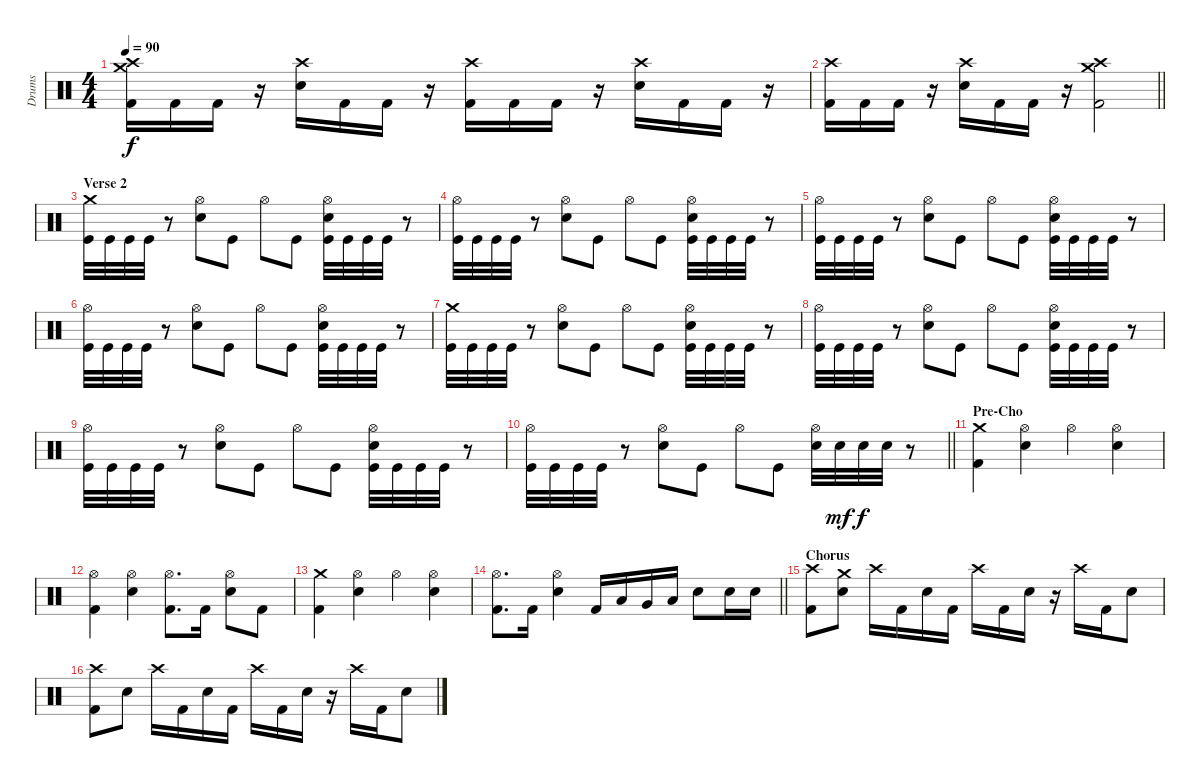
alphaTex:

\track ("Drums" "Drums") {instrument percussion}
\staff {score}
\articulation defaults
\ts (4 4)
\tempo 90
\clef neutral
\ks c
("Crash medium (hit)" "Crash high (hit)" "Kick (hit) 2").16{dy f} "Kick (hit) 2".16 "Kick (hit) 2".16 r.16 ("Crash high (hit)" "Electric Snare (hit)").16 "Kick (hit) 2".16 "Kick (hit) 2".16 r.16 ("Crash high (hit)" "Kick (hit) 2").16 "Kick (hit) 2".16 "Kick (hit) 2".16 r.16 ("Crash high (hit)" "Electric Snare (hit)").16 "Kick (hit) 2".16 "Kick (hit) 2".16 r.16 |
\barLineRight lightlight
("Crash high (hit)" "Kick (hit) 2").16 "Kick (hit) 2".16 "Kick (hit) 2".16 r.16 ("Crash high (hit)" "Electric Snare (hit)").16 "Kick (hit) 2".16 "Kick (hit) 2".16 r.16 ("Crash medium (hit)" "Crash high (hit)" "Kick (hit) 2").2 |
\section ("" "Verse 2")
("Crash medium (hit)" "Kick (hit)").32 "Kick (hit)".32 "Kick (hit)".32 "Kick (hit)".32 r.8 ("Hi-Hat (open)" "Electric Snare (hit)").8 "Kick (hit)".8 "Hi-Hat (open)".8 "Kick (hit)".8 ("Hi-Hat (open)" "Electric Snare (hit)" "Kick (hit)").32 "Kick (hit)".32 "Kick (hit)".32 "Kick (hit)".32 r.8 |
("Hi-Hat (open)" "Kick (hit)").32 "Kick (hit)".32 "Kick (hit)".32 "Kick (hit)".32 r.8 ("Hi-Hat (open)" "Electric Snare (hit)").8 "Kick (hit)".8 "Hi-Hat (open)".8 "Kick (hit)".8 ("Hi-Hat (open)" "Electric Snare (hit)" "Kick (hit)").32 "Kick (hit)".32 "Kick (hit)".32 "Kick (hit)".32 r.8 |
("Hi-Hat (open)" "Kick (hit)").32 "Kick (hit)".32 "Kick (hit)".32 "Kick (hit)".32 r.8 ("Hi-Hat (open)" "Electric Snare (hit)").8 "Kick (hit)".8 "Hi-Hat (open)".8 "Kick (hit)".8 ("Hi-Hat (open)" "Electric Snare (hit)" "Kick (hit)").32 "Kick (hit)".32 "Kick (hit)".32 "Kick (hit)".32 r.8 |
("Hi-Hat (open)" "Kick (hit)").32 "Kick (hit)".32 "Kick (hit)".32 "Kick (hit)".32 r.8 ("Hi-Hat (open)" "Electric Snare (hit)").8 "Kick (hit)".8 "Hi-Hat (open)".8 "Kick (hit)".8 ("Hi-Hat (open)" "Electric Snare (hit)" "Kick (hit)").32 "Kick (hit)".32 "Kick (hit)".32 "Kick (hit)".32 r.8 |
("Crash medium (hit)" "Kick (hit)").32 "Kick (hit)".32 "Kick (hit)".32 "Kick (hit)".32 r.8 ("Hi-Hat (open)" "Electric Snare (hit)").8 "Kick (hit)".8 "Hi-Hat (open)".8 "Kick (hit)".8 ("Hi-Hat (open)" "Electric Snare (hit)" "Kick (hit)").32 "Kick (hit)".32 "Kick (hit)".32 "Kick (hit)".32 r.8 |
("Hi-Hat (open)" "Kick (hit)").32 "Kick (hit)".32 "Kick (hit)".32 "Kick (hit)".32 r.8 ("Hi-Hat (open)" "Electric Snare (hit)").8 "Kick (hit)".8 "Hi-Hat (open)".8 "Kick (hit)".8 ("Hi-Hat (open)" "Electric Snare (hit)" "Kick (hit)").32 "Kick (hit)".32 "Kick (hit)".32 "Kick (hit)".32 r.8 |
("Hi-Hat (open)" "Kick (hit)").32 "Kick (hit)".32 "Kick (hit)".32 "Kick (hit)".32 r.8 ("Hi-Hat (open)" "Electric Snare (hit)").8 "Kick (hit)".8 "Hi-Hat (open)".8 "Kick (hit)".8 ("Hi-Hat (open)" "Electric Snare (hit)" "Kick (hit)").32 "Kick (hit)".32 "Kick (hit)".32 "Kick (hit)".32 r.8 |
\barLineRight lightlight
("Hi-Hat (open)" "Kick (hit)").32 "Kick (hit)".32 "Kick (hit)".32 "Kick (hit)".32 r.8 ("Hi-Hat (open)" "Electric Snare (hit)").8 "Kick (hit)".8 "Hi-Hat (open)".8 "Kick (hit)".8 ("Hi-Hat (open)" "Electric Snare (hit)").32 "Electric Snare (hit)".32{dy mf} "Electric Snare (hit)".32{dy f} "Electric Snare (hit)".32 r.8 |
\section ("" "Pre-Cho")
("Crash medium (hit)" "Kick (hit) 2").4 ("Hi-Hat (open)" "Electric Snare (hit)").4 "Hi-Hat (open)".4 ("Hi-Hat (open)" "Electric Snare (hit)").4 |
("Hi-Hat (open)" "Kick (hit) 2").4 ("Hi-Hat (open)" "Electric Snare (hit)").4 ("Hi-Hat (open)" "Kick (hit) 2").8{d} "Kick (hit) 2".16 ("Hi-Hat (open)" "Electric Snare (hit)").8 "Kick (hit) 2".8 |
("Crash medium (hit)" "Kick (hit) 2").4 ("Hi-Hat (open)" "Electric Snare (hit)").4 "Hi-Hat (open)".4 ("Hi-Hat (open)" "Electric Snare (hit)").4 |
\barLineRight lightlight
("Hi-Hat (open)" "Kick (hit) 2").8{d} "Kick (hit) 2".16 ("Hi-Hat (open)" "Electric Snare (hit)").4 "Kick (hit) 2".16 "Low Tom (hit)".16 "Very Low Tom (hit)".16 "Low Floor Tom (hit)".16 "Electric Snare (hit)".8 "Electric Snare (hit)".16 "Electric Snare (hit)".16 |
\section ("" "Chorus")
("Crash high (hit)" "Kick (hit) 2").8 ("Crash medium (hit)" "Electric Snare (hit)").8 "Crash high (hit)".16 "Kick (hit) 2".16 "Electric Snare (hit)".16 "Kick (hit) 2".16 "Crash high (hit)".16 "Kick (hit) 2".16 "Electric Snare (hit)".16 r.16 "Crash high (hit)".16 "Kick (hit) 2".16 "Electric Snare (hit)".8 |
("Crash high (hit)" "Kick (hit) 2").8 "Electric Snare (hit)".8 "Crash high (hit)".16 "Kick (hit) 2".16 "Electric Snare (hit)".16 "Kick (hit) 2".16 "Crash high (hit)".16 "Kick (hit) 2".16 "Electric Snare (hit)".16 r.16 "Crash high (hit)".16 "Kick (hit) 2".16 "Electric Snare (hit)".8
